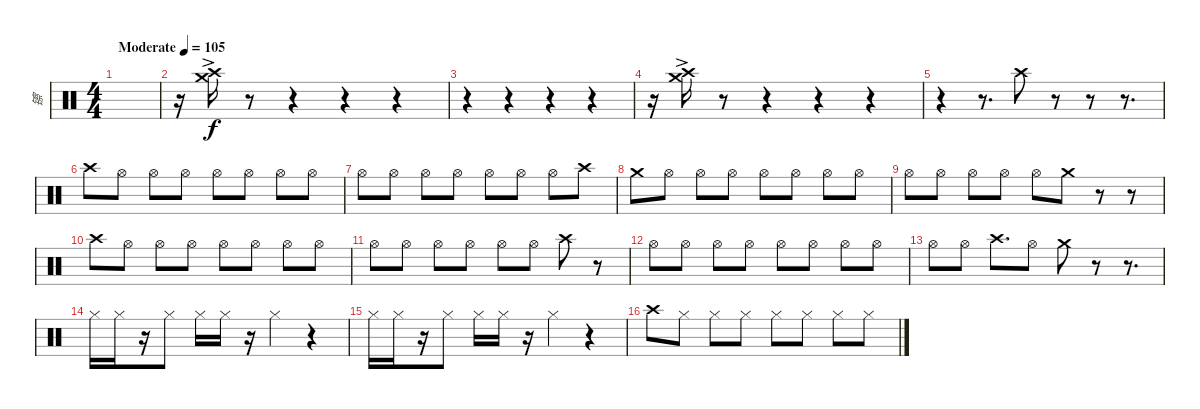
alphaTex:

\track ("镲" "镲") {instrument percussion}
\staff {score}
\articulation defaults
\ts (4 4)
\tempo (105 "Moderate")
\clef neutral
\ks c
|
r.16 ("Crash medium (hit)"{ac} "Crash high (hit)"{ac}).16 r.8 r.4 r.4 r.4 |
r.4 r.4 r.4 r.4 |
r.16 ("Crash medium (hit)"{ac} "Crash high (hit)"{ac}).16 r.8 r.4 r.4 r.4 |
r.4 r.8{d} "Crash high (hit)".8{dy f} r.8 r.8 r.8{d} |
"Crash high (hit)".8 "Hi-Hat (open)".8 "Hi-Hat (open)".8 "Hi-Hat (open)".8 "Hi-Hat (open)".8 "Hi-Hat (open)".8 "Hi-Hat (open)".8 "Hi-Hat (open)".8 |
"Hi-Hat (open)".8 "Hi-Hat (open)".8 "Hi-Hat (open)".8 "Hi-Hat (open)".8 "Hi-Hat (open)".8 "Hi-Hat (open)".8 "Hi-Hat (open)".8 "Crash high (hit)".8 |
"Crash medium (hit)".8 "Hi-Hat (open)".8 "Hi-Hat (open)".8 "Hi-Hat (open)".8 "Hi-Hat (open)".8 "Hi-Hat (open)".8 "Hi-Hat (open)".8 "Hi-Hat (open)".8 |
"Hi-Hat (open)".8 "Hi-Hat (open)".8 "Hi-Hat (open)".8 "Hi-Hat (open)".8 "Hi-Hat (open)".8 "Crash medium (hit)".8 r.8 r.8 |
"Crash high (hit)".8 "Hi-Hat (open)".8 "Hi-Hat (open)".8 "Hi-Hat (open)".8 "Hi-Hat (open)".8 "Hi-Hat (open)".8 "Hi-Hat (open)".8 "Hi-Hat (open)".8 |
"Hi-Hat (open)".8 "Hi-Hat (open)".8 "Hi-Hat (open)".8 "Hi-Hat (open)".8 "Hi-Hat (open)".8 "Hi-Hat (open)".8 "Crash high (hit)".8 r.8 |
"Hi-Hat (open)".8 "Hi-Hat (open)".8 "Hi-Hat (open)".8 "Hi-Hat (open)".8 "Hi-Hat (open)".8 "Hi-Hat (open)".8 "Hi-Hat (open)".8 "Hi-Hat (open)".8 |
"Hi-Hat (open)".8 "Hi-Hat (open)".8 "Crash high (hit)".8{d} "Hi-Hat (open)".8 "Crash medium (hit)".8 r.8 r.8{d} |
"Hi-Hat (closed)".16 "Hi-Hat (closed)".16 r.16 "Hi-Hat (closed)".8 "Hi-Hat (closed)".16 "Hi-Hat (closed)".16 r.16 "Hi-Hat (closed)".4 r.4 |
"Hi-Hat (closed)".16 "Hi-Hat (closed)".16 r.16 "Hi-Hat (closed)".8 "Hi-Hat (closed)".16 "Hi-Hat (closed)".16 r.16 "Hi-Hat (closed)".4 r.4 |
"Crash high (hit)".8 "Hi-Hat (closed)".8 "Hi-Hat (closed)".8 "Hi-Hat (closed)".8 "Hi-Hat (closed)".8 "Hi-Hat (closed)".8 "Hi-Hat (closed)".8 "Hi-Hat (closed)".8
